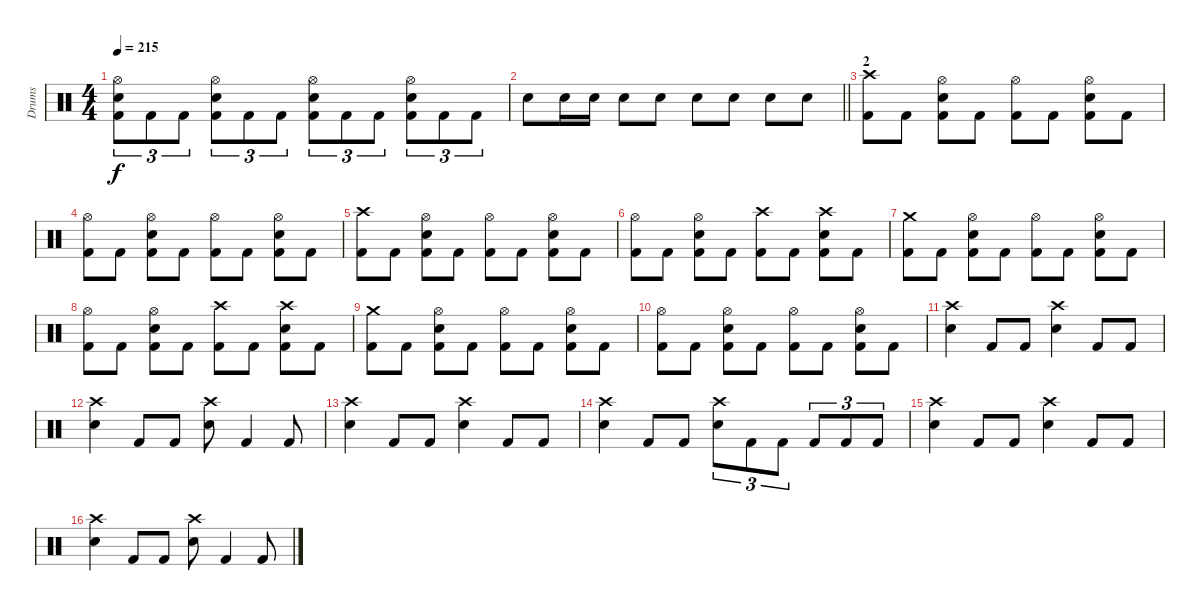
\track ("Drums" "Drums") {instrument percussion}
\staff {score}
\articulation defaults
\ts (4 4)
\tempo 215
\clef neutral
\ks c
("Hi-Hat (open)" "Electric Snare (hit)" "Kick (hit) 2").8{tu (3 2) dy f} "Kick (hit) 2".8{tu (3 2)} "Kick (hit) 2".8{tu (3 2)} ("Hi-Hat (open)" "Electric Snare (hit)" "Kick (hit) 2").8{tu (3 2)} "Kick (hit) 2".8{tu (3 2)} "Kick (hit) 2".8{tu (3 2)} ("Hi-Hat (open)" "Electric Snare (hit)" "Kick (hit) 2").8{tu (3 2)} "Kick (hit) 2".8{tu (3 2)} "Kick (hit) 2".8{tu (3 2)} ("Hi-Hat (open)" "Electric Snare (hit)" "Kick (hit) 2").8{tu (3 2)} "Kick (hit) 2".8{tu (3 2)} "Kick (hit) 2".8{tu (3 2)} |
\barLineRight lightlight "Electric Snare (hit)".8 "Electric Snare (hit)".16 "Electric Snare (hit)".16 "Electric Snare (hit)".8 "Electric Snare (hit)".8 "Electric Snare (hit)".8 "Electric Snare (hit)".8 "Electric Snare (hit)".8 "Electric Snare (hit)".8
|
\section ("" "2")
("Crash high (hit)" "Kick (hit) 2").8 "Kick (hit) 2".8 ("Hi-Hat (open)" "Electric Snare (hit)" "Kick (hit) 2").8 "Kick (hit) 2".8 ("Hi-Hat (open)" "Kick (hit) 2").8 "Kick (hit) 2".8 ("Hi-Hat (open)" "Electric Snare (hit)" "Kick (hit) 2").8 "Kick (hit) 2".8 |
("Hi-Hat (open)" "Kick (hit) 2").8 "Kick (hit) 2".8 ("Hi-Hat (open)" "Electric Snare (hit)" "Kick (hit) 2").8 "Kick (hit) 2".8 ("Hi-Hat (open)" "Kick (hit) 2").8 "Kick (hit) 2".8 ("Hi-Hat (open)" "Electric Snare (hit)" "Kick (hit) 2").8 "Kick (hit) 2".8 |
("Crash high (hit)" "Kick (hit) 2").8 "Kick (hit) 2".8 ("Hi-Hat (open)" "Electric Snare (hit)" "Kick (hit) 2").8 "Kick (hit) 2".8 ("Hi-Hat (open)" "Kick (hit) 2").8 "Kick (hit) 2".8 ("Hi-Hat (open)" "Electric Snare (hit)" "Kick (hit) 2").8 "Kick (hit) 2".8 |
("Hi-Hat (open)" "Kick (hit) 2").8 "Kick (hit) 2".8 ("Hi-Hat (open)" "Electric Snare (hit)" "Kick (hit) 2").8 "Kick (hit) 2".8 ("Crash high (hit)" "Kick (hit) 2").8 "Kick (hit) 2".8 ("Crash high (hit)" "Electric Snare (hit)" "Kick (hit) 2").8 "Kick (hit) 2".8 |
("Crash medium (hit)" "Kick (hit) 2").8 "Kick (hit) 2".8 ("Hi-Hat (open)" "Electric Snare (hit)" "Kick (hit) 2").8 "Kick (hit) 2".8 ("Hi-Hat (open)" "Kick (hit) 2").8 "Kick (hit) 2".8 ("Hi-Hat (open)" "Electric Snare (hit)" "Kick (hit) 2").8 "Kick (hit) 2".8 |
("Hi-Hat (open)" "Kick (hit) 2").8 "Kick (hit) 2".8 ("Hi-Hat (open)" "Electric Snare (hit)" "Kick (hit) 2").8 "Kick (hit) 2".8 ("Crash high (hit)" "Kick (hit) 2").8 "Kick (hit) 2".8 ("Crash high (hit)" "Electric Snare (hit)" "Kick (hit) 2").8 "Kick (hit) 2".8 |
("Crash medium (hit)" "Kick (hit) 2").8 "Kick (hit) 2".8 ("Hi-Hat (open)" "Electric Snare (hit)" "Kick (hit) 2").8 "Kick (hit) 2".8 ("Hi-Hat (open)" "Kick (hit) 2").8 "Kick (hit) 2".8 ("Hi-Hat (open)" "Electric Snare (hit)" "Kick (hit) 2").8 "Kick (hit) 2".8 |
("Hi-Hat (open)" "Kick (hit) 2").8 "Kick (hit) 2".8 ("Hi-Hat (open)" "Electric Snare (hit)" "Kick (hit) 2").8 "Kick (hit) 2".8 ("Hi-Hat (open)" "Kick (hit) 2").8 "Kick (hit) 2".8 ("Hi-Hat (open)" "Electric Snare (hit)" "Kick (hit) 2").8 "Kick (hit) 2".8 |
("Crash high (hit)" "Electric Snare (hit)").4 "Kick (hit) 2".8 "Kick (hit) 2".8 ("Crash high (hit)" "Electric Snare (hit)").4 "Kick (hit) 2".8 "Kick (hit) 2".8 |
("Crash high (hit)" "Electric Snare (hit)").4 "Kick (hit) 2".8 "Kick (hit) 2".8 ("Crash high (hit)" "Electric Snare (hit)").8 "Kick (hit) 2".4 "Kick (hit) 2".8 |
("Crash high (hit)" "Electric Snare (hit)").4 "Kick (hit) 2".8 "Kick (hit) 2".8 ("Crash high (hit)" "Electric Snare (hit)").4 "Kick (hit) 2".8 "Kick (hit) 2".8 |
("Crash high (hit)" "Electric Snare (hit)").4 "Kick (hit) 2".8 "Kick (hit) 2".8 ("Crash high (hit)" "Electric Snare (hit)").8{tu (3 2)} "Kick (hit) 2".8{tu (3 2)} "Kick (hit) 2".8{tu (3 2)} "Kick (hit) 2".8{tu (3 2)} "Kick (hit) 2".8{tu (3 2)} "Kick (hit) 2".8{tu (3 2)} |
("Crash high (hit)" "Electric Snare (hit)").4 "Kick (hit) 2".8 "Kick (hit) 2".8 ("Crash high (hit)" "Electric Snare (hit)").4 "Kick (hit) 2".8 "Kick (hit) 2".8 |
("Crash high (hit)" "Electric Snare (hit)").4 "Kick (hit) 2".8 "Kick (hit) 2".8 ("Crash high (hit)" "Electric Snare (hit)").8 "Kick (hit) 2".4 "Kick (hit) 2".8
